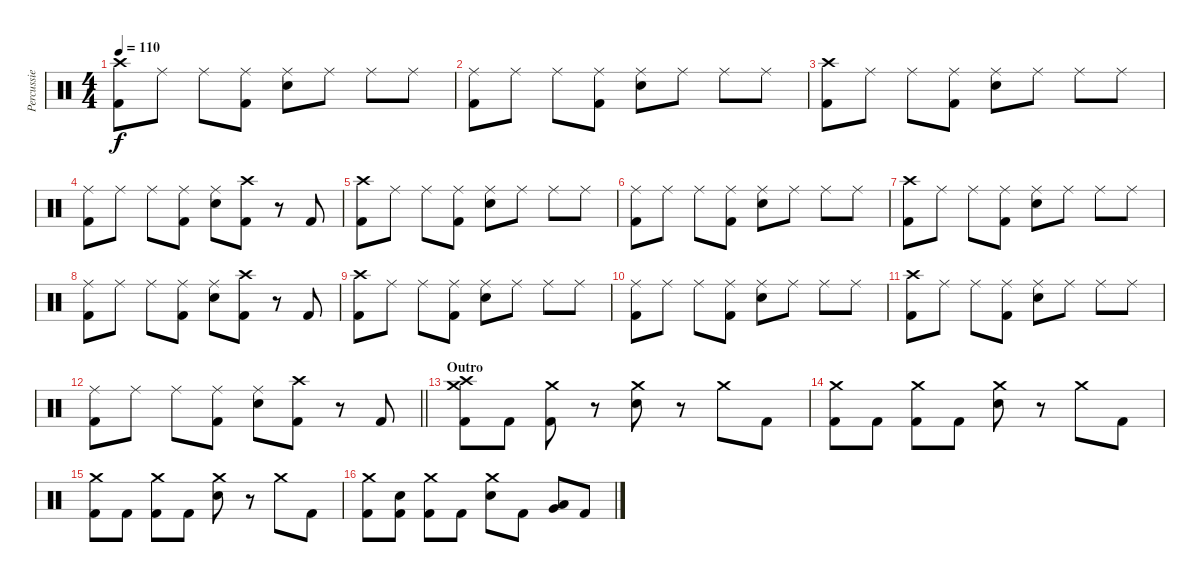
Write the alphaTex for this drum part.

\track ("Percussie" "Percussie") {instrument percussion}
\staff {score}
\articulation defaults
\ts (4 4)
\tempo 110
\clef neutral
\ks c
("Crash high (hit)" "Kick (hit) 2").8{dy f} "Ride (middle)".8 "Ride (middle)".8 ("Ride (middle)" "Kick (hit) 2").8 ("Ride (middle)" "Electric Snare (hit)").8 "Ride (middle)".8 "Ride (middle)".8 "Ride (middle)".8 |
("Ride (middle)" "Kick (hit) 2").8 "Ride (middle)".8 "Ride (middle)".8 ("Ride (middle)" "Kick (hit) 2").8 ("Ride (middle)" "Electric Snare (hit)").8 "Ride (middle)".8 "Ride (middle)".8 "Ride (middle)".8 |
("Crash high (hit)" "Kick (hit) 2").8 "Ride (middle)".8 "Ride (middle)".8 ("Ride (middle)" "Kick (hit) 2").8 ("Ride (middle)" "Electric Snare (hit)").8 "Ride (middle)".8 "Ride (middle)".8 "Ride (middle)".8 |
("Ride (middle)" "Kick (hit) 2").8 "Ride (middle)".8 "Ride (middle)".8 ("Ride (middle)" "Kick (hit) 2").8 ("Ride (middle)" "Electric Snare (hit)").8 ("Crash high (hit)" "Kick (hit) 2").8 r.8 "Kick (hit) 2".8 |
("Crash high (hit)" "Kick (hit) 2").8 "Ride (middle)".8 "Ride (middle)".8 ("Ride (middle)" "Kick (hit) 2").8 ("Ride (middle)" "Electric Snare (hit)").8 "Ride (middle)".8 "Ride (middle)".8 "Ride (middle)".8 |
("Ride (middle)" "Kick (hit) 2").8 "Ride (middle)".8 "Ride (middle)".8 ("Ride (middle)" "Kick (hit) 2").8 ("Ride (middle)" "Electric Snare (hit)").8 "Ride (middle)".8 "Ride (middle)".8 "Ride (middle)".8 |
("Crash high (hit)" "Kick (hit) 2").8 "Ride (middle)".8 "Ride (middle)".8 ("Ride (middle)" "Kick (hit) 2").8 ("Ride (middle)" "Electric Snare (hit)").8 "Ride (middle)".8 "Ride (middle)".8 "Ride (middle)".8 |
("Ride (middle)" "Kick (hit) 2").8 "Ride (middle)".8 "Ride (middle)".8 ("Ride (middle)" "Kick (hit) 2").8 ("Ride (middle)" "Electric Snare (hit)").8 ("Crash high (hit)" "Kick (hit) 2").8 r.8 "Kick (hit) 2".8 |
("Crash high (hit)" "Kick (hit) 2").8 "Ride (middle)".8 "Ride (middle)".8 ("Ride (middle)" "Kick (hit) 2").8 ("Ride (middle)" "Electric Snare (hit)").8 "Ride (middle)".8 "Ride (middle)".8 "Ride (middle)".8 |
("Ride (middle)" "Kick (hit) 2").8 "Ride (middle)".8 "Ride (middle)".8 ("Ride (middle)" "Kick (hit) 2").8 ("Ride (middle)" "Electric Snare (hit)").8 "Ride (middle)".8 "Ride (middle)".8 "Ride (middle)".8 |
("Crash high (hit)" "Kick (hit) 2").8 "Ride (middle)".8 "Ride (middle)".8 ("Ride (middle)" "Kick (hit) 2").8 ("Ride (middle)" "Electric Snare (hit)").8 "Ride (middle)".8 "Ride (middle)".8 "Ride (middle)".8 |
\barLineRight lightlight
("Ride (middle)" "Kick (hit) 2").8 "Ride (middle)".8 "Ride (middle)".8 ("Ride (middle)" "Kick (hit) 2").8 ("Ride (middle)" "Electric Snare (hit)").8 ("Crash high (hit)" "Kick (hit) 2").8 r.8 "Kick (hit) 2".8 |
\section ("" "Outro")
("Crash high (hit)" "Crash medium (hit)" "Kick (hit) 2").8 "Kick (hit) 2".8 ("Crash medium (hit)" "Kick (hit) 2").8 r.8 ("Crash medium (hit)" "Electric Snare (hit)").8 r.8 "Crash medium (hit)".8 "Kick (hit) 2".8 |
("Crash medium (hit)" "Kick (hit) 2").8 "Kick (hit) 2".8 ("Crash medium (hit)" "Kick (hit) 2").8 "Kick (hit) 2".8 ("Crash medium (hit)" "Electric Snare (hit)").8 r.8 "Crash medium (hit)".8 "Kick (hit) 2".8 |
("Crash medium (hit)" "Kick (hit) 2").8 "Kick (hit) 2".8 ("Crash medium (hit)" "Kick (hit) 2").8 "Kick (hit) 2".8 ("Crash medium (hit)" "Electric Snare (hit)").8 r.8 "Crash medium (hit)".8 "Kick (hit) 2".8 |
("Crash medium (hit)" "Kick (hit) 2").8 ("Electric Snare (hit)" "Kick (hit) 2").8 ("Crash medium (hit)" "Kick (hit) 2").8 "Kick (hit) 2".8 ("Crash medium (hit)" "Electric Snare (hit)").8 "Kick (hit) 2".8 ("Low Tom (hit)" "Very Low Tom (hit)").8 "Kick (hit) 2".8
